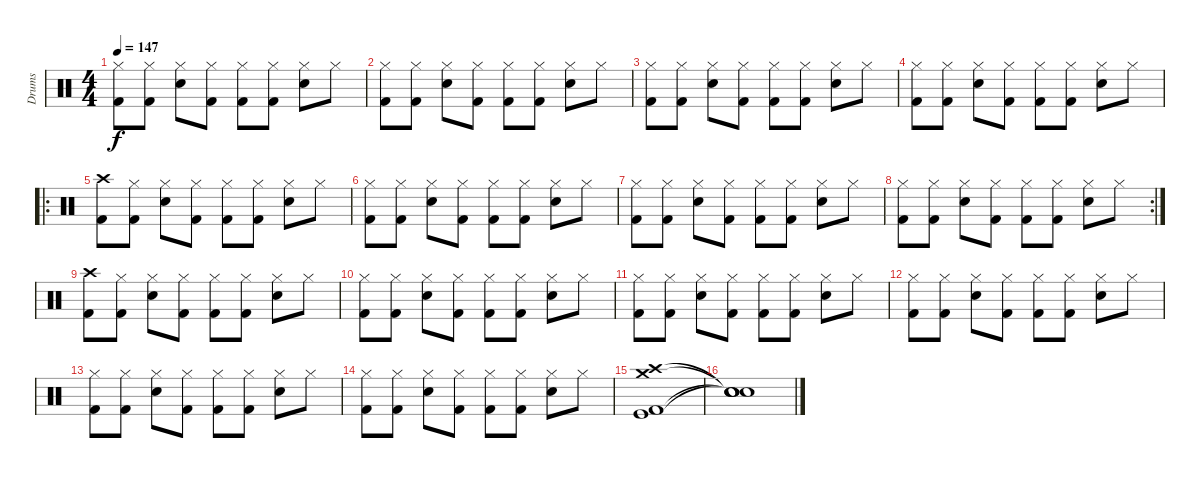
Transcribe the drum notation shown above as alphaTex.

\track ("Drums" "Drums") {instrument percussion}
\staff {score}
\articulation defaults
\ts (4 4)
\tempo 147
\clef neutral
\ks c
("Hi-Hat (closed)" "Kick (hit) 2").8{dy f} ("Hi-Hat (closed)" "Kick (hit) 2").8 ("Hi-Hat (closed)" "Snare (hit) 2").8 ("Hi-Hat (closed)" "Kick (hit) 2").8 ("Hi-Hat (closed)" "Kick (hit) 2").8 ("Hi-Hat (closed)" "Kick (hit) 2").8 ("Hi-Hat (closed)" "Snare (hit) 2").8 "Hi-Hat (closed)".8 |
("Hi-Hat (closed)" "Kick (hit) 2").8 ("Hi-Hat (closed)" "Kick (hit) 2").8 ("Hi-Hat (closed)" "Snare (hit) 2").8 ("Hi-Hat (closed)" "Kick (hit) 2").8 ("Hi-Hat (closed)" "Kick (hit) 2").8 ("Hi-Hat (closed)" "Kick (hit) 2").8 ("Hi-Hat (closed)" "Snare (hit) 2").8 "Hi-Hat (closed)".8 |
("Hi-Hat (closed)" "Kick (hit) 2").8 ("Hi-Hat (closed)" "Kick (hit) 2").8 ("Hi-Hat (closed)" "Snare (hit) 2").8 ("Hi-Hat (closed)" "Kick (hit) 2").8 ("Hi-Hat (closed)" "Kick (hit) 2").8 ("Hi-Hat (closed)" "Kick (hit) 2").8 ("Hi-Hat (closed)" "Snare (hit) 2").8 "Hi-Hat (closed)".8 |
("Hi-Hat (closed)" "Kick (hit) 2").8 ("Hi-Hat (closed)" "Kick (hit) 2").8 ("Hi-Hat (closed)" "Snare (hit) 2").8 ("Hi-Hat (closed)" "Kick (hit) 2").8 ("Hi-Hat (closed)" "Kick (hit) 2").8 ("Hi-Hat (closed)" "Kick (hit) 2").8 ("Hi-Hat (closed)" "Snare (hit) 2").8 "Hi-Hat (closed)".8 |
\ro
("Crash high (hit)" "Kick (hit) 2").8 ("Hi-Hat (closed)" "Kick (hit) 2").8 ("Hi-Hat (closed)" "Snare (hit) 2").8 ("Hi-Hat (closed)" "Kick (hit) 2").8 ("Hi-Hat (closed)" "Kick (hit) 2").8 ("Hi-Hat (closed)" "Kick (hit) 2").8 ("Hi-Hat (closed)" "Snare (hit) 2").8 "Hi-Hat (closed)".8 |
("Hi-Hat (closed)" "Kick (hit) 2").8 ("Hi-Hat (closed)" "Kick (hit) 2").8 ("Hi-Hat (closed)" "Snare (hit) 2").8 ("Hi-Hat (closed)" "Kick (hit) 2").8 ("Hi-Hat (closed)" "Kick (hit) 2").8 ("Hi-Hat (closed)" "Kick (hit) 2").8 ("Hi-Hat (closed)" "Snare (hit) 2").8 "Hi-Hat (closed)".8 |
("Hi-Hat (closed)" "Kick (hit) 2").8 ("Hi-Hat (closed)" "Kick (hit) 2").8 ("Hi-Hat (closed)" "Snare (hit) 2").8 ("Hi-Hat (closed)" "Kick (hit) 2").8 ("Hi-Hat (closed)" "Kick (hit) 2").8 ("Hi-Hat (closed)" "Kick (hit) 2").8 ("Hi-Hat (closed)" "Snare (hit) 2").8 "Hi-Hat (closed)".8 |
\rc 2
("Hi-Hat (closed)" "Kick (hit) 2").8 ("Hi-Hat (closed)" "Kick (hit) 2").8 ("Hi-Hat (closed)" "Snare (hit) 2").8 ("Hi-Hat (closed)" "Kick (hit) 2").8 ("Hi-Hat (closed)" "Kick (hit) 2").8 ("Hi-Hat (closed)" "Kick (hit) 2").8 ("Hi-Hat (closed)" "Snare (hit) 2").8 "Hi-Hat (closed)".8 |
("Crash high (hit)" "Kick (hit) 2").8 ("Hi-Hat (closed)" "Kick (hit) 2").8 ("Hi-Hat (closed)" "Snare (hit) 2").8 ("Hi-Hat (closed)" "Kick (hit) 2").8 ("Hi-Hat (closed)" "Kick (hit) 2").8 ("Hi-Hat (closed)" "Kick (hit) 2").8 ("Hi-Hat (closed)" "Snare (hit) 2").8 "Hi-Hat (closed)".8 |
("Hi-Hat (closed)" "Kick (hit) 2").8 ("Hi-Hat (closed)" "Kick (hit) 2").8 ("Hi-Hat (closed)" "Snare (hit) 2").8 ("Hi-Hat (closed)" "Kick (hit) 2").8 ("Hi-Hat (closed)" "Kick (hit) 2").8 ("Hi-Hat (closed)" "Kick (hit) 2").8 ("Hi-Hat (closed)" "Snare (hit) 2").8 "Hi-Hat (closed)".8 |
("Hi-Hat (closed)" "Kick (hit) 2").8 ("Hi-Hat (closed)" "Kick (hit) 2").8 ("Hi-Hat (closed)" "Snare (hit) 2").8 ("Hi-Hat (closed)" "Kick (hit) 2").8 ("Hi-Hat (closed)" "Kick (hit) 2").8 ("Hi-Hat (closed)" "Kick (hit) 2").8 ("Hi-Hat (closed)" "Snare (hit) 2").8 "Hi-Hat (closed)".8 |
("Hi-Hat (closed)" "Kick (hit) 2").8 ("Hi-Hat (closed)" "Kick (hit) 2").8 ("Hi-Hat (closed)" "Snare (hit) 2").8 ("Hi-Hat (closed)" "Kick (hit) 2").8 ("Hi-Hat (closed)" "Kick (hit) 2").8 ("Hi-Hat (closed)" "Kick (hit) 2").8 ("Hi-Hat (closed)" "Snare (hit) 2").8 "Hi-Hat (closed)".8 |
("Hi-Hat (closed)" "Kick (hit) 2").8 ("Hi-Hat (closed)" "Kick (hit) 2").8 ("Hi-Hat (closed)" "Snare (hit) 2").8 ("Hi-Hat (closed)" "Kick (hit) 2").8 ("Hi-Hat (closed)" "Kick (hit) 2").8 ("Hi-Hat (closed)" "Kick (hit) 2").8 ("Hi-Hat (closed)" "Snare (hit) 2").8 "Hi-Hat (closed)".8 |
("Hi-Hat (closed)" "Kick (hit) 2").8 ("Hi-Hat (closed)" "Kick (hit) 2").8 ("Hi-Hat (closed)" "Snare (hit) 2").8 ("Hi-Hat (closed)" "Kick (hit) 2").8 ("Hi-Hat (closed)" "Kick (hit) 2").8 ("Hi-Hat (closed)" "Kick (hit) 2").8 ("Hi-Hat (closed)" "Snare (hit) 2").8 "Hi-Hat (closed)".8 |
("Kick (hit)" "Crash medium (hit)" "Kick (hit) 2" "Crash high (hit)").1 |
("Snare (hit)"{t} "Snare (hit)"{t} "Snare (hit)"{t} "Snare (hit)"{t}).1
